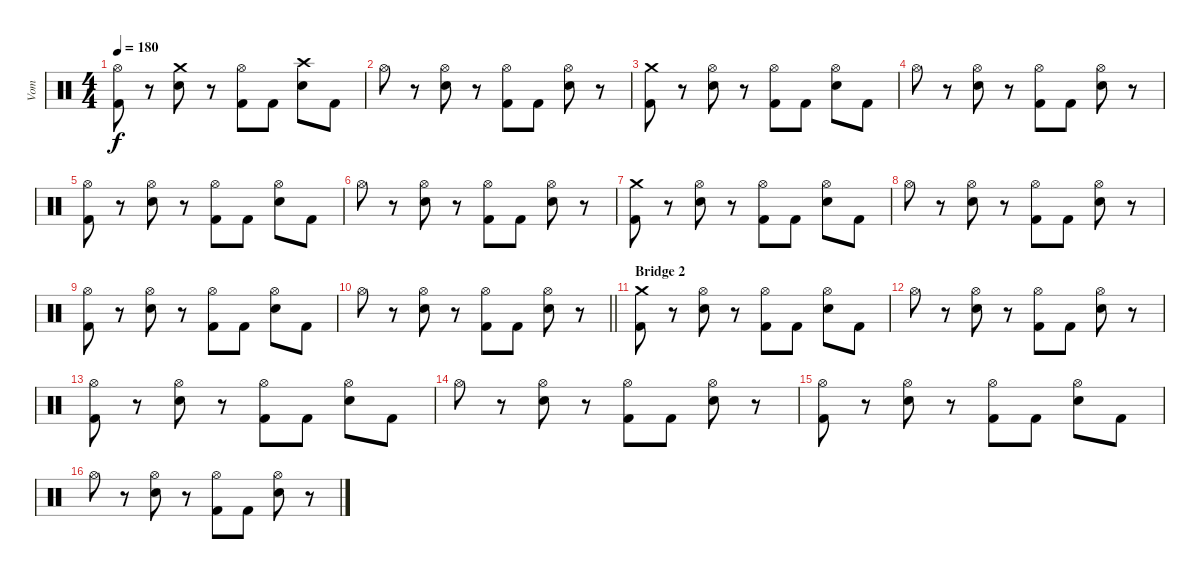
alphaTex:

\track ("Vom" "Vom") {instrument percussion}
\staff {score}
\articulation defaults
\ts (4 4)
\tempo 180
\clef neutral
\ks c
("Hi-Hat (open)" "Kick (hit) 2").8{dy f} r.8 ("Crash medium (hit)" "Snare (hit) 2").8 r.8 ("Hi-Hat (open)" "Kick (hit) 2").8 "Kick (hit) 2".8 ("Crash high (hit)" "Snare (hit) 2").8 "Kick (hit) 2".8 |
"Hi-Hat (open)".8 r.8 ("Hi-Hat (open)" "Snare (hit) 2").8 r.8 ("Hi-Hat (open)" "Kick (hit) 2").8 "Kick (hit) 2".8 ("Hi-Hat (open)" "Snare (hit) 2").8 r.8 |
("Crash medium (hit)" "Kick (hit) 2").8 r.8 ("Hi-Hat (open)" "Snare (hit) 2").8 r.8 ("Hi-Hat (open)" "Kick (hit) 2").8 "Kick (hit) 2".8 ("Hi-Hat (open)" "Snare (hit) 2").8 "Kick (hit) 2".8 |
"Hi-Hat (open)".8 r.8 ("Hi-Hat (open)" "Snare (hit) 2").8 r.8 ("Hi-Hat (open)" "Kick (hit) 2").8 "Kick (hit) 2".8 ("Hi-Hat (open)" "Snare (hit) 2").8 r.8 |
("Hi-Hat (open)" "Kick (hit) 2").8 r.8 ("Hi-Hat (open)" "Snare (hit) 2").8 r.8 ("Hi-Hat (open)" "Kick (hit) 2").8 "Kick (hit) 2".8 ("Hi-Hat (open)" "Snare (hit) 2").8 "Kick (hit) 2".8 |
"Hi-Hat (open)".8 r.8 ("Hi-Hat (open)" "Snare (hit) 2").8 r.8 ("Hi-Hat (open)" "Kick (hit) 2").8 "Kick (hit) 2".8 ("Hi-Hat (open)" "Snare (hit) 2").8 r.8 |
("Crash medium (hit)" "Kick (hit) 2").8 r.8 ("Hi-Hat (open)" "Snare (hit) 2").8 r.8 ("Hi-Hat (open)" "Kick (hit) 2").8 "Kick (hit) 2".8 ("Hi-Hat (open)" "Snare (hit) 2").8 "Kick (hit) 2".8 |
"Hi-Hat (open)".8 r.8 ("Hi-Hat (open)" "Snare (hit) 2").8 r.8 ("Hi-Hat (open)" "Kick (hit) 2").8 "Kick (hit) 2".8 ("Hi-Hat (open)" "Snare (hit) 2").8 r.8 |
("Hi-Hat (open)" "Kick (hit) 2").8 r.8 ("Hi-Hat (open)" "Snare (hit) 2").8 r.8 ("Hi-Hat (open)" "Kick (hit) 2").8 "Kick (hit) 2".8 ("Hi-Hat (open)" "Snare (hit) 2").8 "Kick (hit) 2".8 |
\barLineRight lightlight "Hi-Hat (open)".8
r.8 ("Hi-Hat (open)" "Snare (hit) 2").8 r.8 ("Hi-Hat (open)" "Kick (hit) 2").8 "Kick (hit) 2".8 ("Hi-Hat (open)" "Snare (hit) 2").8 r.8 |
\section ("" "Bridge 2")
("Crash medium (hit)" "Kick (hit) 2").8 r.8 ("Hi-Hat (open)" "Snare (hit) 2").8 r.8 ("Hi-Hat (open)" "Kick (hit) 2").8 "Kick (hit) 2".8 ("Hi-Hat (open)" "Snare (hit) 2").8 "Kick (hit) 2".8 |
"Hi-Hat (open)".8 r.8 ("Hi-Hat (open)" "Snare (hit) 2").8 r.8 ("Hi-Hat (open)" "Kick (hit) 2").8 "Kick (hit) 2".8 ("Hi-Hat (open)" "Snare (hit) 2").8 r.8 |
("Hi-Hat (open)" "Kick (hit) 2").8 r.8 ("Hi-Hat (open)" "Snare (hit) 2").8 r.8 ("Hi-Hat (open)" "Kick (hit) 2").8 "Kick (hit) 2".8 ("Hi-Hat (open)" "Snare (hit) 2").8 "Kick (hit) 2".8 |
"Hi-Hat (open)".8 r.8 ("Hi-Hat (open)" "Snare (hit) 2").8 r.8 ("Hi-Hat (open)" "Kick (hit) 2").8 "Kick (hit) 2".8 ("Hi-Hat (open)" "Snare (hit) 2").8 r.8 |
("Hi-Hat (open)" "Kick (hit) 2").8 r.8 ("Hi-Hat (open)" "Snare (hit) 2").8 r.8 ("Hi-Hat (open)" "Kick (hit) 2").8 "Kick (hit) 2".8 ("Hi-Hat (open)" "Snare (hit) 2").8 "Kick (hit) 2".8 |
"Hi-Hat (open)".8 r.8 ("Hi-Hat (open)" "Snare (hit) 2").8 r.8 ("Hi-Hat (open)" "Kick (hit) 2").8 "Kick (hit) 2".8 ("Hi-Hat (open)" "Snare (hit) 2").8 r.8
